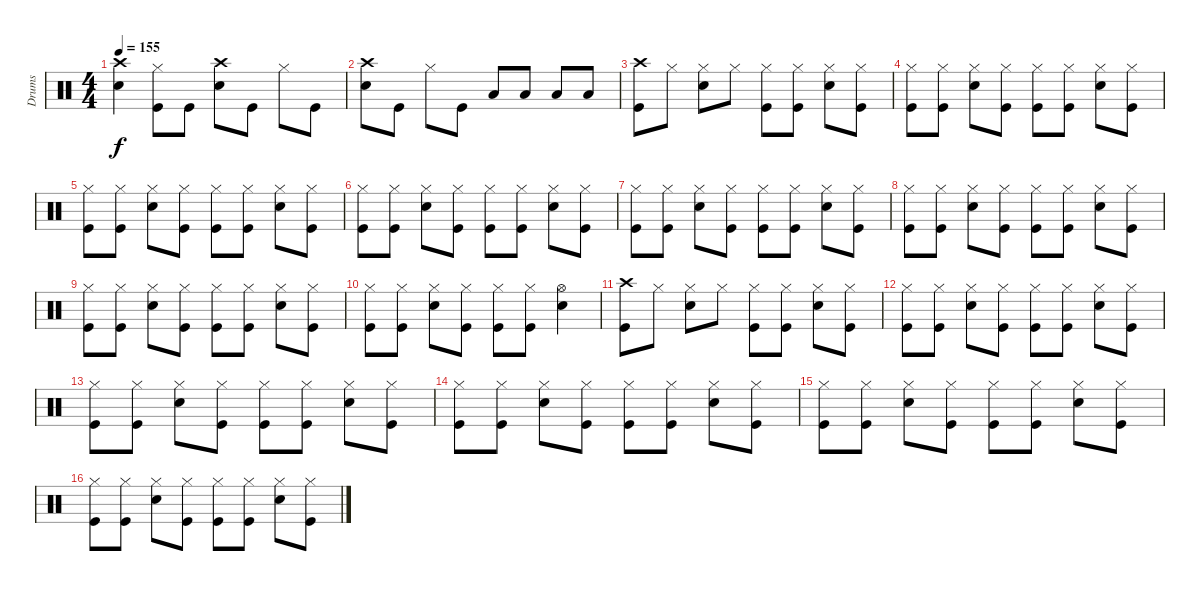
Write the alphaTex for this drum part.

\track ("Drums" "Drums") {instrument percussion}
\staff {score}
\articulation defaults
\ts (4 4)
\tempo 155
\clef neutral
\ks c
("Crash high (hit)" "Snare (hit) 2").4{dy f} ("Hi-Hat (closed)" "Kick (hit)").8 "Kick (hit)".8 ("Crash high (hit)" "Snare (hit) 2").8 "Kick (hit)".8 "Hi-Hat (closed)".8 "Kick (hit)".8 |
("Crash high (hit)" "Snare (hit) 2").8 "Kick (hit)".8 "Hi-Hat (closed)".8 "Kick (hit)".8 "Low Floor Tom (hit)".8 "Low Floor Tom (hit)".8 "Low Floor Tom (hit)".8 "Low Floor Tom (hit)".8 |
("Crash high (hit)" "Kick (hit)").8 "Hi-Hat (closed)".8 ("Hi-Hat (closed)" "Snare (hit) 2").8 "Hi-Hat (closed)".8 ("Hi-Hat (closed)" "Kick (hit)").8 ("Hi-Hat (closed)" "Kick (hit)").8 ("Hi-Hat (closed)" "Snare (hit) 2").8 ("Hi-Hat (closed)" "Kick (hit)").8 |
("Hi-Hat (closed)" "Kick (hit)").8 ("Hi-Hat (closed)" "Kick (hit)").8 ("Hi-Hat (closed)" "Snare (hit) 2").8 ("Hi-Hat (closed)" "Kick (hit)").8 ("Hi-Hat (closed)" "Kick (hit)").8 ("Hi-Hat (closed)" "Kick (hit)").8 ("Hi-Hat (closed)" "Snare (hit) 2").8 ("Hi-Hat (closed)" "Kick (hit)").8 |
("Hi-Hat (closed)" "Kick (hit)").8 ("Hi-Hat (closed)" "Kick (hit)").8 ("Hi-Hat (closed)" "Snare (hit) 2").8 ("Hi-Hat (closed)" "Kick (hit)").8 ("Hi-Hat (closed)" "Kick (hit)").8 ("Hi-Hat (closed)" "Kick (hit)").8 ("Hi-Hat (closed)" "Snare (hit) 2").8 ("Hi-Hat (closed)" "Kick (hit)").8 |
("Hi-Hat (closed)" "Kick (hit)").8 ("Hi-Hat (closed)" "Kick (hit)").8 ("Hi-Hat (closed)" "Snare (hit) 2").8 ("Hi-Hat (closed)" "Kick (hit)").8 ("Hi-Hat (closed)" "Kick (hit)").8 ("Hi-Hat (closed)" "Kick (hit)").8 ("Hi-Hat (closed)" "Snare (hit) 2").8 ("Hi-Hat (closed)" "Kick (hit)").8 |
("Hi-Hat (closed)" "Kick (hit)").8 ("Hi-Hat (closed)" "Kick (hit)").8 ("Hi-Hat (closed)" "Snare (hit) 2").8 ("Hi-Hat (closed)" "Kick (hit)").8 ("Hi-Hat (closed)" "Kick (hit)").8 ("Hi-Hat (closed)" "Kick (hit)").8 ("Hi-Hat (closed)" "Snare (hit) 2").8 ("Hi-Hat (closed)" "Kick (hit)").8 |
("Hi-Hat (closed)" "Kick (hit)").8 ("Hi-Hat (closed)" "Kick (hit)").8 ("Hi-Hat (closed)" "Snare (hit) 2").8 ("Hi-Hat (closed)" "Kick (hit)").8 ("Hi-Hat (closed)" "Kick (hit)").8 ("Hi-Hat (closed)" "Kick (hit)").8 ("Hi-Hat (closed)" "Snare (hit) 2").8 ("Hi-Hat (closed)" "Kick (hit)").8 |
("Hi-Hat (closed)" "Kick (hit)").8 ("Hi-Hat (closed)" "Kick (hit)").8 ("Hi-Hat (closed)" "Snare (hit) 2").8 ("Hi-Hat (closed)" "Kick (hit)").8 ("Hi-Hat (closed)" "Kick (hit)").8 ("Hi-Hat (closed)" "Kick (hit)").8 ("Hi-Hat (closed)" "Snare (hit) 2").8 ("Hi-Hat (closed)" "Kick (hit)").8 |
("Hi-Hat (closed)" "Kick (hit)").8 ("Hi-Hat (closed)" "Kick (hit)").8 ("Hi-Hat (closed)" "Snare (hit) 2").8 ("Hi-Hat (closed)" "Kick (hit)").8 ("Hi-Hat (closed)" "Kick (hit)").8 ("Hi-Hat (closed)" "Kick (hit)").8 ("Hi-Hat (open)" "Snare (hit) 2").4 |
("Crash high (hit)" "Kick (hit)").8 "Hi-Hat (closed)".8 ("Hi-Hat (closed)" "Snare (hit) 2").8 "Hi-Hat (closed)".8 ("Hi-Hat (closed)" "Kick (hit)").8 ("Hi-Hat (closed)" "Kick (hit)").8 ("Hi-Hat (closed)" "Snare (hit) 2").8 ("Hi-Hat (closed)" "Kick (hit)").8 |
("Hi-Hat (closed)" "Kick (hit)").8 ("Hi-Hat (closed)" "Kick (hit)").8 ("Hi-Hat (closed)" "Snare (hit) 2").8 ("Hi-Hat (closed)" "Kick (hit)").8 ("Hi-Hat (closed)" "Kick (hit)").8 ("Hi-Hat (closed)" "Kick (hit)").8 ("Hi-Hat (closed)" "Snare (hit) 2").8 ("Hi-Hat (closed)" "Kick (hit)").8 |
("Hi-Hat (closed)" "Kick (hit)").8 ("Hi-Hat (closed)" "Kick (hit)").8 ("Hi-Hat (closed)" "Snare (hit) 2").8 ("Hi-Hat (closed)" "Kick (hit)").8 ("Hi-Hat (closed)" "Kick (hit)").8 ("Hi-Hat (closed)" "Kick (hit)").8 ("Hi-Hat (closed)" "Snare (hit) 2").8 ("Hi-Hat (closed)" "Kick (hit)").8 |
("Hi-Hat (closed)" "Kick (hit)").8 ("Hi-Hat (closed)" "Kick (hit)").8 ("Hi-Hat (closed)" "Snare (hit) 2").8 ("Hi-Hat (closed)" "Kick (hit)").8 ("Hi-Hat (closed)" "Kick (hit)").8 ("Hi-Hat (closed)" "Kick (hit)").8 ("Hi-Hat (closed)" "Snare (hit) 2").8 ("Hi-Hat (closed)" "Kick (hit)").8 |
("Hi-Hat (closed)" "Kick (hit)").8 ("Hi-Hat (closed)" "Kick (hit)").8 ("Hi-Hat (closed)" "Snare (hit) 2").8 ("Hi-Hat (closed)" "Kick (hit)").8 ("Hi-Hat (closed)" "Kick (hit)").8 ("Hi-Hat (closed)" "Kick (hit)").8 ("Hi-Hat (closed)" "Snare (hit) 2").8 ("Hi-Hat (closed)" "Kick (hit)").8 |
("Hi-Hat (closed)" "Kick (hit)").8 ("Hi-Hat (closed)" "Kick (hit)").8 ("Hi-Hat (closed)" "Snare (hit) 2").8 ("Hi-Hat (closed)" "Kick (hit)").8 ("Hi-Hat (closed)" "Kick (hit)").8 ("Hi-Hat (closed)" "Kick (hit)").8 ("Hi-Hat (closed)" "Snare (hit) 2").8 ("Hi-Hat (closed)" "Kick (hit)").8
